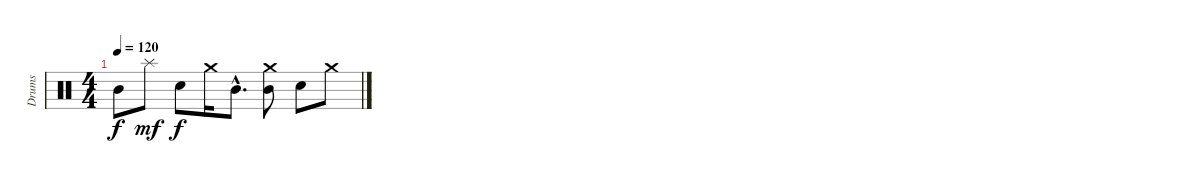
\track ("Drums" "Drums") {instrument percussion}
\staff {score}
\articulation defaults
\ts (4 4)
\tempo 120
\clef neutral
\ks c "Mid Tom (hit)".8{dy f} "Splash (hit)".8{dy mf} "Electric Snare (hit)".8{dy f} "Crash medium (hit)".16 "Mid Tom (hit)"{hac}.8{d}
("Crash medium (hit)" "Mid Tom (hit)").8 "Electric Snare (hit)".8 "Crash medium (hit)".8
